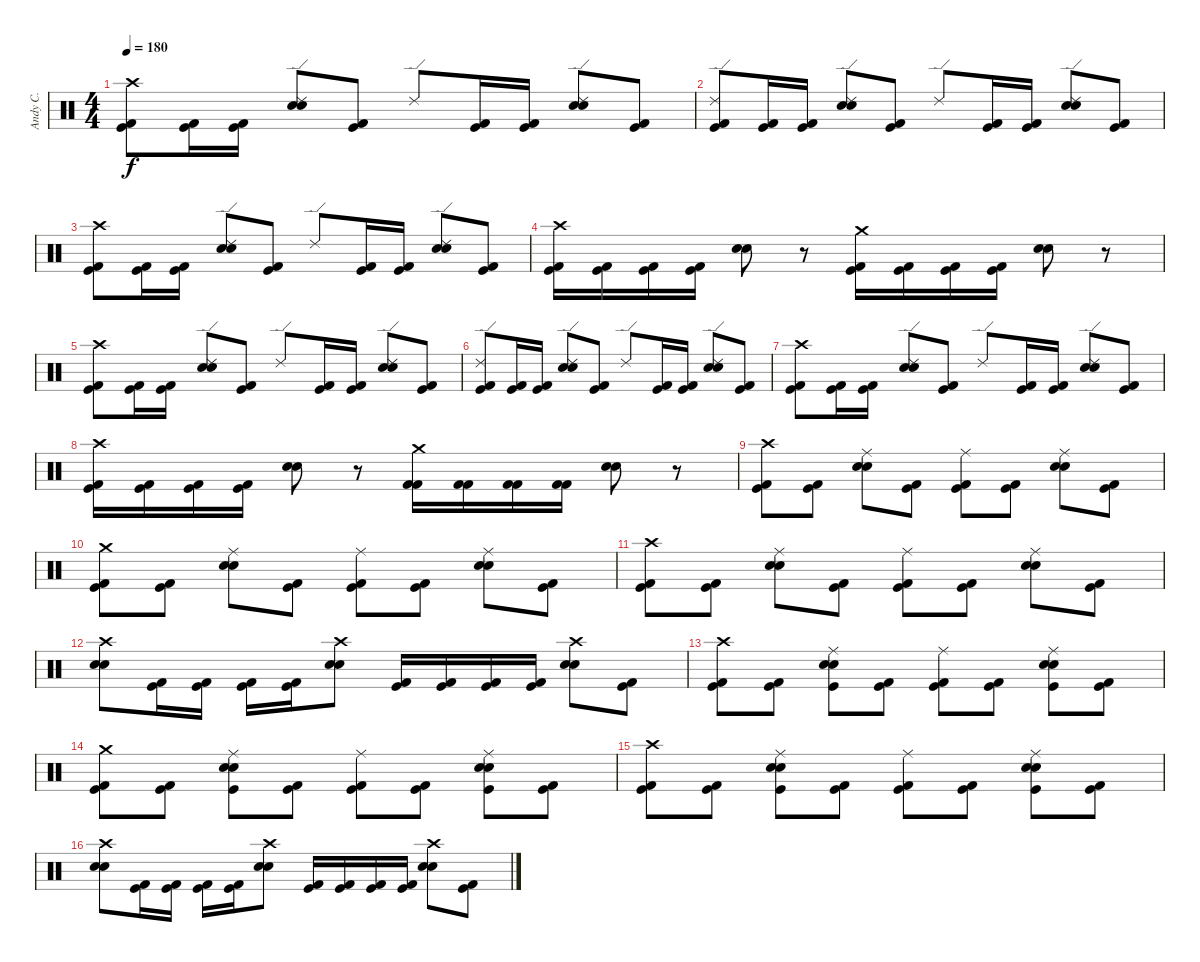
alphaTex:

\track ("Andy C." "Andy C.") {instrument percussion}
\staff {score}
\articulation defaults
\ts (4 4)
\tempo 180
\clef neutral
\ks c
("Crash high (hit)" "Kick (hit)" "Kick (hit) 2").8{dy f} ("Kick (hit)" "Kick (hit) 2").16 ("Kick (hit)" "Kick (hit) 2").16 ("Ride (edge) 2" "Snare (hit) 2" "Electric Snare (hit)").8 ("Kick (hit)" "Kick (hit) 2").8 "Ride (edge) 2".8 ("Kick (hit)" "Kick (hit) 2").16 ("Kick (hit)" "Kick (hit) 2").16 ("Ride (edge) 2" "Snare (hit) 2" "Electric Snare (hit)").8 ("Kick (hit)" "Kick (hit) 2").8 |
("Ride (edge) 2" "Kick (hit)" "Kick (hit) 2").8 ("Kick (hit)" "Kick (hit) 2").16 ("Kick (hit)" "Kick (hit) 2").16 ("Ride (edge) 2" "Snare (hit) 2" "Electric Snare (hit)").8 ("Kick (hit)" "Kick (hit) 2").8 "Ride (edge) 2".8 ("Kick (hit)" "Kick (hit) 2").16 ("Kick (hit)" "Kick (hit) 2").16 ("Ride (edge) 2" "Snare (hit) 2" "Electric Snare (hit)").8 ("Kick (hit)" "Kick (hit) 2").8 |
("Crash high (hit)" "Kick (hit)" "Kick (hit) 2").8 ("Kick (hit)" "Kick (hit) 2").16 ("Kick (hit)" "Kick (hit) 2").16 ("Ride (edge) 2" "Snare (hit) 2" "Electric Snare (hit)").8 ("Kick (hit)" "Kick (hit) 2").8 "Ride (edge) 2".8 ("Kick (hit)" "Kick (hit) 2").16 ("Kick (hit)" "Kick (hit) 2").16 ("Ride (edge) 2" "Snare (hit) 2" "Electric Snare (hit)").8 ("Kick (hit)" "Kick (hit) 2").8 |
("Crash high (hit)" "Kick (hit)" "Kick (hit) 2").16 ("Kick (hit)" "Kick (hit) 2").16 ("Kick (hit)" "Kick (hit) 2").16 ("Kick (hit)" "Kick (hit) 2").16 ("Snare (hit) 2" "Electric Snare (hit)").8 r.8 ("Crash medium (hit)" "Kick (hit)" "Kick (hit) 2").16 ("Kick (hit)" "Kick (hit) 2").16 ("Kick (hit)" "Kick (hit) 2").16 ("Kick (hit)" "Kick (hit) 2").16 ("Snare (hit) 2" "Electric Snare (hit)").8 r.8 |
("Crash high (hit)" "Kick (hit)" "Kick (hit) 2").8 ("Kick (hit)" "Kick (hit) 2").16 ("Kick (hit)" "Kick (hit) 2").16 ("Ride (edge) 2" "Snare (hit) 2" "Electric Snare (hit)").8 ("Kick (hit)" "Kick (hit) 2").8 "Ride (edge) 2".8 ("Kick (hit)" "Kick (hit) 2").16 ("Kick (hit)" "Kick (hit) 2").16 ("Ride (edge) 2" "Snare (hit) 2" "Electric Snare (hit)").8 ("Kick (hit)" "Kick (hit) 2").8 |
("Ride (edge) 2" "Kick (hit)" "Kick (hit) 2").8 ("Kick (hit)" "Kick (hit) 2").16 ("Kick (hit)" "Kick (hit) 2").16 ("Ride (edge) 2" "Snare (hit) 2" "Electric Snare (hit)").8 ("Kick (hit)" "Kick (hit) 2").8 "Ride (edge) 2".8 ("Kick (hit)" "Kick (hit) 2").16 ("Kick (hit)" "Kick (hit) 2").16 ("Ride (edge) 2" "Snare (hit) 2" "Electric Snare (hit)").8 ("Kick (hit)" "Kick (hit) 2").8 |
("Crash high (hit)" "Kick (hit)" "Kick (hit) 2").8 ("Kick (hit)" "Kick (hit) 2").16 ("Kick (hit)" "Kick (hit) 2").16 ("Ride (edge) 2" "Snare (hit) 2" "Electric Snare (hit)").8 ("Kick (hit)" "Kick (hit) 2").8 "Ride (edge) 2".8 ("Kick (hit)" "Kick (hit) 2").16 ("Kick (hit)" "Kick (hit) 2").16 ("Ride (edge) 2" "Snare (hit) 2" "Electric Snare (hit)").8 ("Kick (hit)" "Kick (hit) 2").8 |
("Crash high (hit)" "Kick (hit)" "Kick (hit) 2").16 ("Kick (hit)" "Kick (hit) 2").16 ("Kick (hit)" "Kick (hit) 2").16 ("Kick (hit)" "Kick (hit) 2").16 ("Snare (hit) 2" "Electric Snare (hit)").8 r.8 ("Crash medium (hit)" "Kick (hit) 2" "Kick (hit) 2").16 ("Kick (hit) 2" "Kick (hit) 2").16 ("Kick (hit) 2" "Kick (hit) 2").16 ("Kick (hit) 2" "Kick (hit) 2").16 ("Snare (hit) 2" "Electric Snare (hit)").8 r.8 |
("Crash high (hit)" "Kick (hit)" "Kick (hit) 2").8 ("Kick (hit)" "Kick (hit) 2").8 ("Ride (middle)" "Snare (hit) 2" "Electric Snare (hit)").8 ("Kick (hit)" "Kick (hit) 2").8 ("Ride (middle)" "Kick (hit)" "Kick (hit) 2").8 ("Kick (hit)" "Kick (hit) 2").8 ("Ride (middle)" "Snare (hit) 2" "Electric Snare (hit)").8 ("Kick (hit)" "Kick (hit) 2").8 |
("Crash medium (hit)" "Kick (hit)" "Kick (hit) 2").8 ("Kick (hit)" "Kick (hit) 2").8 ("Ride (middle)" "Snare (hit) 2" "Electric Snare (hit)").8 ("Kick (hit)" "Kick (hit) 2").8 ("Ride (middle)" "Kick (hit)" "Kick (hit) 2").8 ("Kick (hit)" "Kick (hit) 2").8 ("Ride (middle)" "Snare (hit) 2" "Electric Snare (hit)").8 ("Kick (hit)" "Kick (hit) 2").8 |
("Crash high (hit)" "Kick (hit)" "Kick (hit) 2").8 ("Kick (hit)" "Kick (hit) 2").8 ("Ride (middle)" "Snare (hit) 2" "Electric Snare (hit)").8 ("Kick (hit)" "Kick (hit) 2").8 ("Ride (middle)" "Kick (hit)" "Kick (hit) 2").8 ("Kick (hit)" "Kick (hit) 2").8 ("Ride (middle)" "Snare (hit) 2" "Electric Snare (hit)").8 ("Kick (hit)" "Kick (hit) 2").8 |
("Crash high (hit)" "Electric Snare (hit)" "Snare (hit) 2").8 ("Kick (hit)" "Kick (hit) 2").16 ("Kick (hit)" "Kick (hit) 2").16 ("Kick (hit)" "Kick (hit) 2").16 ("Kick (hit)" "Kick (hit) 2").16 ("Crash high (hit)" "Electric Snare (hit)" "Snare (hit) 2").8 ("Kick (hit)" "Kick (hit) 2").16 ("Kick (hit)" "Kick (hit) 2").16 ("Kick (hit)" "Kick (hit) 2").16 ("Kick (hit)" "Kick (hit) 2").16 ("Crash high (hit)" "Snare (hit) 2" "Electric Snare (hit)").8 ("Kick (hit)" "Kick (hit) 2").8 |
("Crash high (hit)" "Kick (hit)" "Kick (hit) 2").8 ("Kick (hit)" "Kick (hit) 2").8 ("Ride (middle)" "Kick (hit)" "Snare (hit) 2" "Electric Snare (hit)").8 ("Kick (hit)" "Kick (hit) 2").8 ("Ride (middle)" "Kick (hit)" "Kick (hit) 2").8 ("Kick (hit)" "Kick (hit) 2").8 ("Ride (middle)" "Kick (hit)" "Snare (hit) 2" "Electric Snare (hit)").8 ("Kick (hit)" "Kick (hit) 2").8 |
("Crash medium (hit)" "Kick (hit)" "Kick (hit) 2").8 ("Kick (hit)" "Kick (hit) 2").8 ("Ride (middle)" "Kick (hit)" "Snare (hit) 2" "Electric Snare (hit)").8 ("Kick (hit)" "Kick (hit) 2").8 ("Ride (middle)" "Kick (hit)" "Kick (hit) 2").8 ("Kick (hit)" "Kick (hit) 2").8 ("Ride (middle)" "Kick (hit)" "Snare (hit) 2" "Electric Snare (hit)").8 ("Kick (hit)" "Kick (hit) 2").8 |
("Crash high (hit)" "Kick (hit)" "Kick (hit) 2").8 ("Kick (hit)" "Kick (hit) 2").8 ("Ride (middle)" "Kick (hit)" "Snare (hit) 2" "Electric Snare (hit)").8 ("Kick (hit)" "Kick (hit) 2").8 ("Ride (middle)" "Kick (hit)" "Kick (hit) 2").8 ("Kick (hit)" "Kick (hit) 2").8 ("Ride (middle)" "Kick (hit)" "Snare (hit) 2" "Electric Snare (hit)").8 ("Kick (hit)" "Kick (hit) 2").8 |
("Crash high (hit)" "Electric Snare (hit)" "Snare (hit) 2").8 ("Kick (hit)" "Kick (hit) 2").16 ("Kick (hit)" "Kick (hit) 2").16 ("Kick (hit)" "Kick (hit) 2").16 ("Kick (hit)" "Kick (hit) 2").16 ("Crash high (hit)" "Electric Snare (hit)" "Snare (hit) 2").8 ("Kick (hit)" "Kick (hit) 2").16 ("Kick (hit)" "Kick (hit) 2").16 ("Kick (hit)" "Kick (hit) 2").16 ("Kick (hit)" "Kick (hit) 2").16 ("Crash high (hit)" "Snare (hit) 2" "Electric Snare (hit)").8 ("Kick (hit)" "Kick (hit) 2").8
